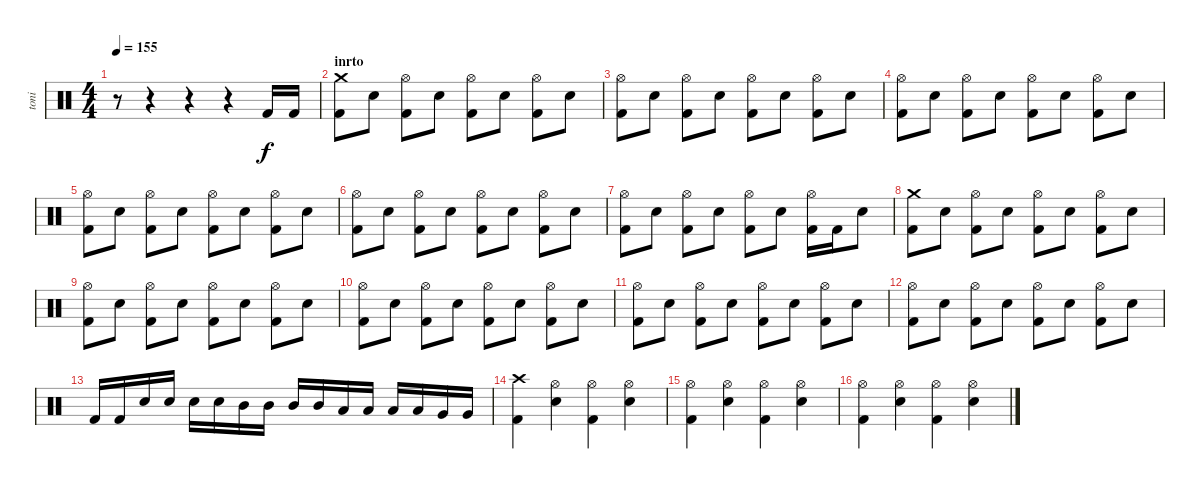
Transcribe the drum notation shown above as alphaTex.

\track ("toni" "toni") {instrument percussion}
\staff {score}
\articulation defaults
\ts (4 4)
\tempo 155
\clef neutral
\ks c
r.8{dy f} r.4 r.4 r.4 "Kick (hit) 2".16 "Kick (hit) 2".16 |
\section ("" "inrto")
("Crash medium (hit)" "Kick (hit) 2").8 "Snare (hit) 2".8 ("Hi-Hat (open)" "Kick (hit) 2").8 "Snare (hit) 2".8 ("Hi-Hat (open)" "Kick (hit) 2").8 "Snare (hit) 2".8 ("Hi-Hat (open)" "Kick (hit) 2").8 "Snare (hit) 2".8 |
("Hi-Hat (open)" "Kick (hit) 2").8 "Snare (hit) 2".8 ("Hi-Hat (open)" "Kick (hit) 2").8 "Snare (hit) 2".8 ("Hi-Hat (open)" "Kick (hit) 2").8 "Snare (hit) 2".8 ("Hi-Hat (open)" "Kick (hit) 2").8 "Snare (hit) 2".8 |
("Hi-Hat (open)" "Kick (hit) 2").8 "Snare (hit) 2".8 ("Hi-Hat (open)" "Kick (hit) 2").8 "Snare (hit) 2".8 ("Hi-Hat (open)" "Kick (hit) 2").8 "Snare (hit) 2".8 ("Hi-Hat (open)" "Kick (hit) 2").8 "Snare (hit) 2".8 |
("Hi-Hat (open)" "Kick (hit) 2").8 "Snare (hit) 2".8 ("Hi-Hat (open)" "Kick (hit) 2").8 "Snare (hit) 2".8 ("Hi-Hat (open)" "Kick (hit) 2").8 "Snare (hit) 2".8 ("Hi-Hat (open)" "Kick (hit) 2").8 "Snare (hit) 2".8 |
("Hi-Hat (open)" "Kick (hit) 2").8 "Snare (hit) 2".8 ("Hi-Hat (open)" "Kick (hit) 2").8 "Snare (hit) 2".8 ("Hi-Hat (open)" "Kick (hit) 2").8 "Snare (hit) 2".8 ("Hi-Hat (open)" "Kick (hit) 2").8 "Snare (hit) 2".8 |
("Hi-Hat (open)" "Kick (hit) 2").8 "Snare (hit) 2".8 ("Hi-Hat (open)" "Kick (hit) 2").8 "Snare (hit) 2".8 ("Hi-Hat (open)" "Kick (hit) 2").8 "Snare (hit) 2".8 ("Hi-Hat (open)" "Kick (hit) 2").16 "Kick (hit) 2".16 "Snare (hit) 2".8 |
("Crash medium (hit)" "Kick (hit) 2").8 "Snare (hit) 2".8 ("Hi-Hat (open)" "Kick (hit) 2").8 "Snare (hit) 2".8 ("Hi-Hat (open)" "Kick (hit) 2").8 "Snare (hit) 2".8 ("Hi-Hat (open)" "Kick (hit) 2").8 "Snare (hit) 2".8 |
("Hi-Hat (open)" "Kick (hit) 2").8 "Snare (hit) 2".8 ("Hi-Hat (open)" "Kick (hit) 2").8 "Snare (hit) 2".8 ("Hi-Hat (open)" "Kick (hit) 2").8 "Snare (hit) 2".8 ("Hi-Hat (open)" "Kick (hit) 2").8 "Snare (hit) 2".8 |
("Hi-Hat (open)" "Kick (hit) 2").8 "Snare (hit) 2".8 ("Hi-Hat (open)" "Kick (hit) 2").8 "Snare (hit) 2".8 ("Hi-Hat (open)" "Kick (hit) 2").8 "Snare (hit) 2".8 ("Hi-Hat (open)" "Kick (hit) 2").8 "Snare (hit) 2".8 |
("Hi-Hat (open)" "Kick (hit) 2").8 "Snare (hit) 2".8 ("Hi-Hat (open)" "Kick (hit) 2").8 "Snare (hit) 2".8 ("Hi-Hat (open)" "Kick (hit) 2").8 "Snare (hit) 2".8 ("Hi-Hat (open)" "Kick (hit) 2").8 "Snare (hit) 2".8 |
("Hi-Hat (open)" "Kick (hit) 2").8 "Snare (hit) 2".8 ("Hi-Hat (open)" "Kick (hit) 2").8 "Snare (hit) 2".8 ("Hi-Hat (open)" "Kick (hit) 2").8 "Snare (hit) 2".8 ("Hi-Hat (open)" "Kick (hit) 2").8 "Snare (hit) 2".8 |
"Kick (hit) 2".16 "Kick (hit) 2".16 "Snare (hit) 2".16 "Snare (hit) 2".16 "Snare (hit) 2".16 "Snare (hit) 2".16 "Mid Tom (hit)".16 "Mid Tom (hit)".16 "Mid Tom (hit)".16 "Mid Tom (hit)".16 "Low Tom (hit)".16 "Low Tom (hit)".16 "Low Tom (hit)".16 "Low Tom (hit)".16 "Very Low Tom (hit)".16 "Very Low Tom (hit)".16 |
("Crash high (hit)" "Kick (hit) 2").4 ("Hi-Hat (open)" "Snare (hit) 2").4 ("Hi-Hat (open)" "Kick (hit) 2").4 ("Hi-Hat (open)" "Snare (hit) 2").4 |
("Hi-Hat (open)" "Kick (hit) 2").4 ("Hi-Hat (open)" "Snare (hit) 2").4 ("Hi-Hat (open)" "Kick (hit) 2").4 ("Hi-Hat (open)" "Snare (hit) 2").4 |
("Hi-Hat (open)" "Kick (hit) 2").4 ("Hi-Hat (open)" "Snare (hit) 2").4 ("Hi-Hat (open)" "Kick (hit) 2").4 ("Hi-Hat (open)" "Snare (hit) 2").4
